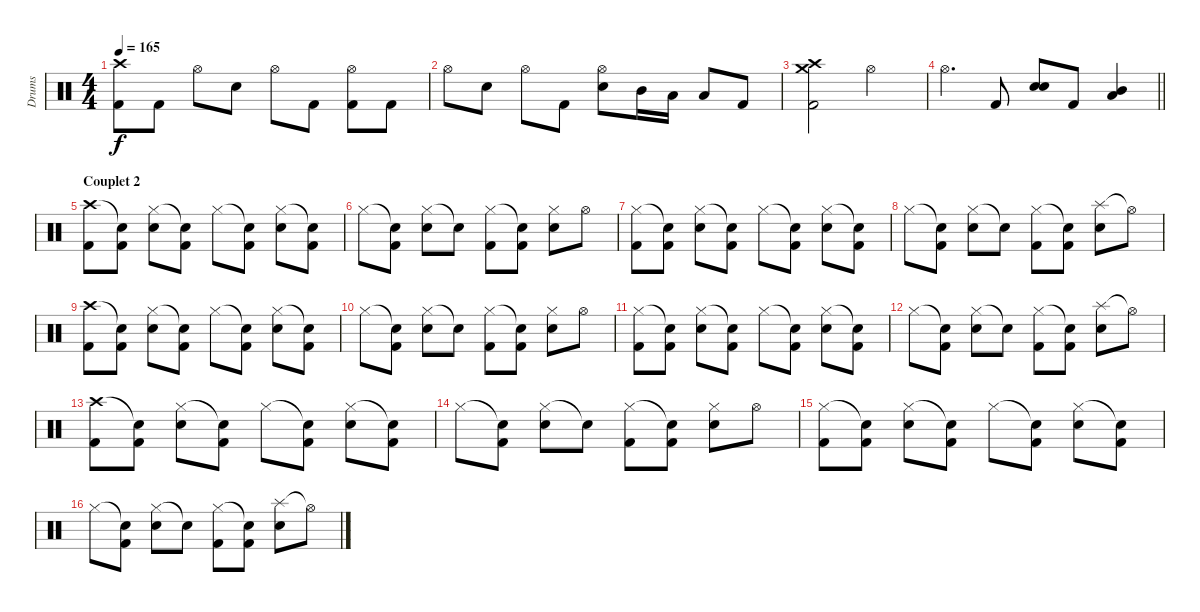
\track ("Drums" "Drums") {instrument percussion}
\staff {score}
\articulation defaults
\ts (4 4)
\tempo 165
\clef neutral
\ks c
("Crash high (hit)" "Kick (hit) 2").8{dy f} "Kick (hit) 2".8 "Hi-Hat (open)".8 "Electric Snare (hit)".8 "Hi-Hat (open)".8 "Kick (hit) 2".8 ("Hi-Hat (open)" "Kick (hit) 2").8 "Kick (hit) 2".8 |
"Hi-Hat (open)".8 "Electric Snare (hit)".8 "Hi-Hat (open)".8 "Kick (hit) 2".8 ("Hi-Hat (open)" "Electric Snare (hit)").8 "Mid Tom (hit)".16 "Low Tom (hit)".16 "Low Floor Tom (hit)".8 "Kick (hit) 2".8 |
("Crash medium (hit)" "Crash high (hit)" "Kick (hit) 2").2 "Hi-Hat (open)".2 |
\barLineRight lightlight "Hi-Hat (open)".4{d} "Kick (hit) 2".8
("Electric Snare (hit)" "Electric Snare (hit)").8 "Kick (hit) 2".8 ("Mid Tom (hit)" "Low Tom (hit)").4 |
\section ("" "Couplet 2")
("Crash high (hit)" "Kick (hit) 2").8 ("Snare (hit)"{t} "Kick (hit) 2").8 ("Hi-Hat (closed)" "Electric Snare (hit)").8 ("Snare (hit)"{t} "Kick (hit) 2").8 "Hi-Hat (closed)".8 ("Snare (hit)"{t} "Kick (hit) 2").8 ("Hi-Hat (closed)" "Electric Snare (hit)").8 ("Snare (hit)"{t} "Kick (hit) 2").8 |
"Hi-Hat (closed)".8 ("Snare (hit)"{t} "Kick (hit) 2").8 ("Hi-Hat (closed)" "Electric Snare (hit)").8 "Snare (hit)"{t}.8 ("Hi-Hat (closed)" "Kick (hit) 2").8 ("Snare (hit)"{t} "Kick (hit) 2").8 ("Hi-Hat (closed)" "Electric Snare (hit)").8 "Hi-Hat (open)".8 |
("Hi-Hat (closed)" "Kick (hit) 2").8 ("Snare (hit)"{t} "Kick (hit) 2").8 ("Hi-Hat (closed)" "Electric Snare (hit)").8 ("Snare (hit)"{t} "Kick (hit) 2").8 "Hi-Hat (closed)".8 ("Snare (hit)"{t} "Kick (hit) 2").8 ("Hi-Hat (closed)" "Electric Snare (hit)").8 ("Snare (hit)"{t} "Kick (hit) 2").8 |
"Hi-Hat (closed)".8 ("Snare (hit)"{t} "Kick (hit) 2").8 ("Hi-Hat (closed)" "Electric Snare (hit)").8 "Snare (hit)"{t}.8 ("Hi-Hat (closed)" "Kick (hit) 2").8 ("Snare (hit)"{t} "Kick (hit) 2").8 ("Splash (hit)" "Electric Snare (hit)").8 "Hi-Hat (open)"{t}.8 |
("Crash high (hit)" "Kick (hit) 2").8 ("Snare (hit)"{t} "Kick (hit) 2").8 ("Hi-Hat (closed)" "Electric Snare (hit)").8 ("Snare (hit)"{t} "Kick (hit) 2").8 "Hi-Hat (closed)".8 ("Snare (hit)"{t} "Kick (hit) 2").8 ("Hi-Hat (closed)" "Electric Snare (hit)").8 ("Snare (hit)"{t} "Kick (hit) 2").8 |
"Hi-Hat (closed)".8 ("Snare (hit)"{t} "Kick (hit) 2").8 ("Hi-Hat (closed)" "Electric Snare (hit)").8 "Snare (hit)"{t}.8 ("Hi-Hat (closed)" "Kick (hit) 2").8 ("Snare (hit)"{t} "Kick (hit) 2").8 ("Hi-Hat (closed)" "Electric Snare (hit)").8 "Hi-Hat (open)".8 |
("Hi-Hat (closed)" "Kick (hit) 2").8 ("Snare (hit)"{t} "Kick (hit) 2").8 ("Hi-Hat (closed)" "Electric Snare (hit)").8 ("Snare (hit)"{t} "Kick (hit) 2").8 "Hi-Hat (closed)".8 ("Snare (hit)"{t} "Kick (hit) 2").8 ("Hi-Hat (closed)" "Electric Snare (hit)").8 ("Snare (hit)"{t} "Kick (hit) 2").8 |
"Hi-Hat (closed)".8 ("Snare (hit)"{t} "Kick (hit) 2").8 ("Hi-Hat (closed)" "Electric Snare (hit)").8 "Snare (hit)"{t}.8 ("Hi-Hat (closed)" "Kick (hit) 2").8 ("Snare (hit)"{t} "Kick (hit) 2").8 ("Splash (hit)" "Electric Snare (hit)").8 "Hi-Hat (open)"{t}.8 |
("Crash high (hit)" "Kick (hit) 2").8 ("Snare (hit)"{t} "Kick (hit) 2").8 ("Hi-Hat (closed)" "Electric Snare (hit)").8 ("Snare (hit)"{t} "Kick (hit) 2").8 "Hi-Hat (closed)".8 ("Snare (hit)"{t} "Kick (hit) 2").8 ("Hi-Hat (closed)" "Electric Snare (hit)").8 ("Snare (hit)"{t} "Kick (hit) 2").8 |
"Hi-Hat (closed)".8 ("Snare (hit)"{t} "Kick (hit) 2").8 ("Hi-Hat (closed)" "Electric Snare (hit)").8 "Snare (hit)"{t}.8 ("Hi-Hat (closed)" "Kick (hit) 2").8 ("Snare (hit)"{t} "Kick (hit) 2").8 ("Hi-Hat (closed)" "Electric Snare (hit)").8 "Hi-Hat (open)".8 |
("Hi-Hat (closed)" "Kick (hit) 2").8 ("Snare (hit)"{t} "Kick (hit) 2").8 ("Hi-Hat (closed)" "Electric Snare (hit)").8 ("Snare (hit)"{t} "Kick (hit) 2").8 "Hi-Hat (closed)".8 ("Snare (hit)"{t} "Kick (hit) 2").8 ("Hi-Hat (closed)" "Electric Snare (hit)").8 ("Snare (hit)"{t} "Kick (hit) 2").8 |
"Hi-Hat (closed)".8 ("Snare (hit)"{t} "Kick (hit) 2").8 ("Hi-Hat (closed)" "Electric Snare (hit)").8 "Snare (hit)"{t}.8 ("Hi-Hat (closed)" "Kick (hit) 2").8 ("Snare (hit)"{t} "Kick (hit) 2").8 ("Splash (hit)" "Electric Snare (hit)").8 "Hi-Hat (open)"{t}.8
